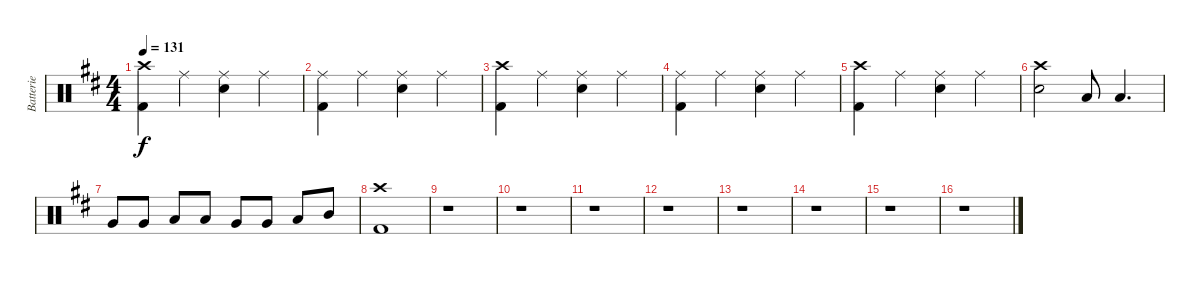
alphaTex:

\track ("Batterie" "Batterie") {instrument percussion}
\staff {score}
\articulation defaults
\ts (4 4)
\tempo 131
\clef neutral
\ks d
("Crash high (hit)" "Kick (hit) 2").4{dy f} "Ride (middle)".4 ("Ride (middle)" "Snare (hit) 2").4 "Ride (middle)".4 |
("Ride (middle)" "Kick (hit) 2").4 "Ride (middle)".4 ("Ride (middle)" "Snare (hit) 2").4 "Ride (middle)".4 |
("Crash high (hit)" "Kick (hit) 2").4 "Ride (middle)".4 ("Ride (middle)" "Snare (hit) 2").4 "Ride (middle)".4 |
("Ride (middle)" "Kick (hit) 2").4 "Ride (middle)".4 ("Ride (middle)" "Snare (hit) 2").4 "Ride (middle)".4 |
("Crash high (hit)" "Kick (hit) 2").4 "Ride (middle)".4 ("Ride (middle)" "Snare (hit) 2").4 "Ride (middle)".4 |
("Crash high (hit)" "Snare (hit) 2").2 "Low Tom (hit)".8 "Low Tom (hit)".4{d} |
"Very Low Tom (hit)".8 "Very Low Tom (hit)".8 "Low Floor Tom (hit)".8 "Low Floor Tom (hit)".8 "Very Low Tom (hit)".8 "Very Low Tom (hit)".8 "Low Tom (hit)".8 "Mid Tom (hit)".8 |
("Crash high (hit)" "Kick (hit) 2").1 |
r.1 |
r.1 |
r.1 |
r.1 |
r.1 |
r.1 |
r.1 |
r.1
